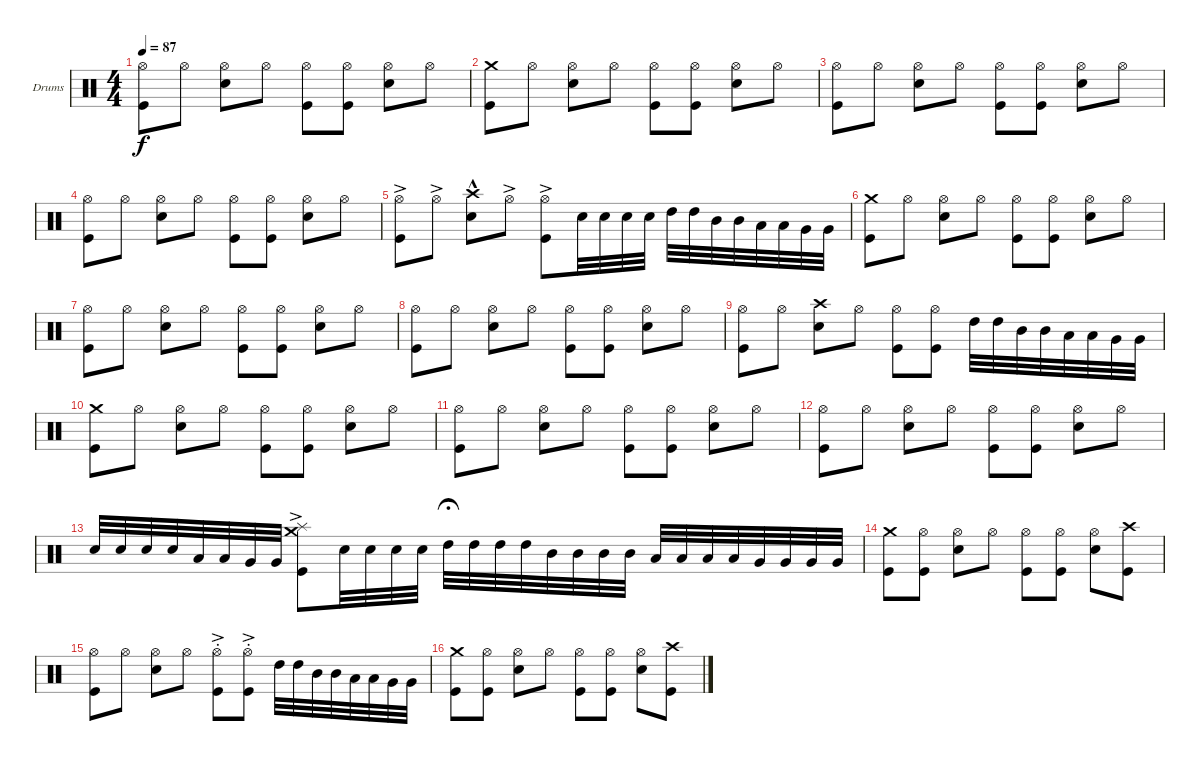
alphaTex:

\bracketExtendMode groupsimilarinstruments
\firstSystemTrackNameOrientation horizontal
\otherSystemsTrackNameOrientation horizontal
\track ("Drumkit" "Drums") {instrument percussion}
\staff {score}
\articulation defaults
\ts (4 4)
\tempo 87
\clef neutral
\ks c
("Hi-Hat (open)" "Kick (hit)").8{dy f} "Hi-Hat (open)".8 ("Hi-Hat (open)" "Snare (hit) 2").8 "Hi-Hat (open)".8 ("Hi-Hat (open)" "Kick (hit)").8 ("Hi-Hat (open)" "Kick (hit)").8 ("Hi-Hat (open)" "Snare (hit) 2").8 "Hi-Hat (open)".8 |
("Crash medium (hit)" "Kick (hit)").8 "Hi-Hat (open)".8 ("Hi-Hat (open)" "Snare (hit) 2").8 "Hi-Hat (open)".8 ("Hi-Hat (open)" "Kick (hit)").8 ("Hi-Hat (open)" "Kick (hit)").8 ("Hi-Hat (open)" "Snare (hit) 2").8 "Hi-Hat (open)".8 |
("Hi-Hat (open)" "Kick (hit)").8 "Hi-Hat (open)".8 ("Hi-Hat (open)" "Snare (hit) 2").8 "Hi-Hat (open)".8 ("Hi-Hat (open)" "Kick (hit)").8 ("Hi-Hat (open)" "Kick (hit)").8 ("Hi-Hat (open)" "Snare (hit) 2").8 "Hi-Hat (open)".8 |
("Hi-Hat (open)" "Kick (hit)").8 "Hi-Hat (open)".8 ("Hi-Hat (open)" "Snare (hit) 2").8 "Hi-Hat (open)".8 ("Hi-Hat (open)" "Kick (hit)").8 ("Hi-Hat (open)" "Kick (hit)").8 ("Hi-Hat (open)" "Snare (hit) 2").8 "Hi-Hat (open)".8 |
("Hi-Hat (open)"{ac} "Kick (hit)").8 "Hi-Hat (open)"{ac}.8 ("Crash high (hit)"{hac} "Snare (hit) 2").8 "Hi-Hat (open)"{ac}.8 ("Hi-Hat (open)"{ac} "Kick (hit)").8 "Snare (hit) 2".32 "Snare (hit) 2".32 "Snare (hit) 2".32 "Snare (hit) 2".32 "High Tom (hit)".32 "High Tom (hit)".32 "Mid Tom (hit)".32 "Mid Tom (hit)".32 "Low Tom (hit)".32 "Low Tom (hit)".32 "Very Low Tom (hit)".32 "Very Low Tom (hit)".32 |
("Crash medium (hit)" "Kick (hit)").8 "Hi-Hat (open)".8 ("Hi-Hat (open)" "Snare (hit) 2").8 "Hi-Hat (open)".8 ("Hi-Hat (open)" "Kick (hit)").8 ("Hi-Hat (open)" "Kick (hit)").8 ("Hi-Hat (open)" "Snare (hit) 2").8 "Hi-Hat (open)".8 |
("Hi-Hat (open)" "Kick (hit)").8 "Hi-Hat (open)".8 ("Hi-Hat (open)" "Snare (hit) 2").8 "Hi-Hat (open)".8 ("Hi-Hat (open)" "Kick (hit)").8 ("Hi-Hat (open)" "Kick (hit)").8 ("Hi-Hat (open)" "Snare (hit) 2").8 "Hi-Hat (open)".8 |
("Hi-Hat (open)" "Kick (hit)").8 "Hi-Hat (open)".8 ("Hi-Hat (open)" "Snare (hit) 2").8 "Hi-Hat (open)".8 ("Hi-Hat (open)" "Kick (hit)").8 ("Hi-Hat (open)" "Kick (hit)").8 ("Hi-Hat (open)" "Snare (hit) 2").8 "Hi-Hat (open)".8 |
("Hi-Hat (open)" "Kick (hit)").8 "Hi-Hat (open)".8 ("Crash high (hit)" "Snare (hit) 2").8 "Hi-Hat (open)".8 ("Hi-Hat (open)" "Kick (hit)").8 ("Hi-Hat (open)" "Kick (hit)").8 "High Tom (hit)".32 "High Tom (hit)".32 "Mid Tom (hit)".32 "Mid Tom (hit)".32 "Low Tom (hit)".32 "Low Tom (hit)".32 "Very Low Tom (hit)".32 "Very Low Tom (hit)".32 |
("Crash medium (hit)" "Kick (hit)").8 "Hi-Hat (open)".8 ("Hi-Hat (open)" "Snare (hit) 2").8 "Hi-Hat (open)".8 ("Hi-Hat (open)" "Kick (hit)").8 ("Hi-Hat (open)" "Kick (hit)").8 ("Hi-Hat (open)" "Snare (hit) 2").8 "Hi-Hat (open)".8 |
("Hi-Hat (open)" "Kick (hit)").8 "Hi-Hat (open)".8 ("Hi-Hat (open)" "Snare (hit) 2").8 "Hi-Hat (open)".8 ("Hi-Hat (open)" "Kick (hit)").8 ("Hi-Hat (open)" "Kick (hit)").8 ("Hi-Hat (open)" "Snare (hit) 2").8 "Hi-Hat (open)".8 |
("Hi-Hat (open)" "Kick (hit)").8 "Hi-Hat (open)".8 ("Hi-Hat (open)" "Snare (hit) 2").8 "Hi-Hat (open)".8 ("Hi-Hat (open)" "Kick (hit)").8 ("Hi-Hat (open)" "Kick (hit)").8 ("Hi-Hat (open)" "Snare (hit) 2").8 "Hi-Hat (open)".8 |
"Snare (hit) 2".32 "Snare (hit) 2".32 "Snare (hit) 2".32 "Snare (hit) 2".32 "Low Tom (hit)".32 "Low Tom (hit)".32 "Very Low Tom (hit)".32 "Very Low Tom (hit)".32 ("Crash medium (hit)"{ac} "Kick (hit)" "Splash (hit)"{ac}).8 "Snare (hit) 2".32 "Snare (hit) 2".32 "Snare (hit) 2".32 "Snare (hit) 2".32 "High Tom (hit)".32{fermata (medium 0.5)} "High Tom (hit)".32 "High Tom (hit)".32 "High Tom (hit)".32 "Mid Tom (hit)".32 "Mid Tom (hit)".32 "Mid Tom (hit)".32 "Mid Tom (hit)".32 "Low Tom (hit)".32 "Low Tom (hit)".32 "Low Tom (hit)".32 "Low Tom (hit)".32 "Very Low Tom (hit)".32 "Very Low Tom (hit)".32 "Very Low Tom (hit)".32 "Very Low Tom (hit)".32 |
("Crash medium (hit)" "Kick (hit)").8 ("Hi-Hat (open)" "Kick (hit)").8 ("Hi-Hat (open)" "Snare (hit) 2").8 "Hi-Hat (open)".8 ("Hi-Hat (open)" "Kick (hit)").8 ("Hi-Hat (open)" "Kick (hit)").8 ("Hi-Hat (open)" "Snare (hit) 2").8 ("Crash high (hit)" "Kick (hit)").8 |
("Hi-Hat (open)" "Kick (hit)").8 "Hi-Hat (open)".8 ("Hi-Hat (open)" "Snare (hit) 2").8 "Hi-Hat (open)".8 ("Hi-Hat (open)"{st} "Kick (hit)"{ac}).8 ("Hi-Hat (open)"{st} "Kick (hit)"{ac}).8 "High Tom (hit)".32 "High Tom (hit)".32 "Mid Tom (hit)".32 "Mid Tom (hit)".32 "Low Tom (hit)".32 "Low Tom (hit)".32 "Very Low Tom (hit)".32 "Very Low Tom (hit)".32 |
("Crash medium (hit)" "Kick (hit)").8 ("Hi-Hat (open)" "Kick (hit)").8 ("Hi-Hat (open)" "Snare (hit) 2").8 "Hi-Hat (open)".8 ("Hi-Hat (open)" "Kick (hit)").8 ("Hi-Hat (open)" "Kick (hit)").8 ("Hi-Hat (open)" "Snare (hit) 2").8 ("Crash high (hit)" "Kick (hit)").8
